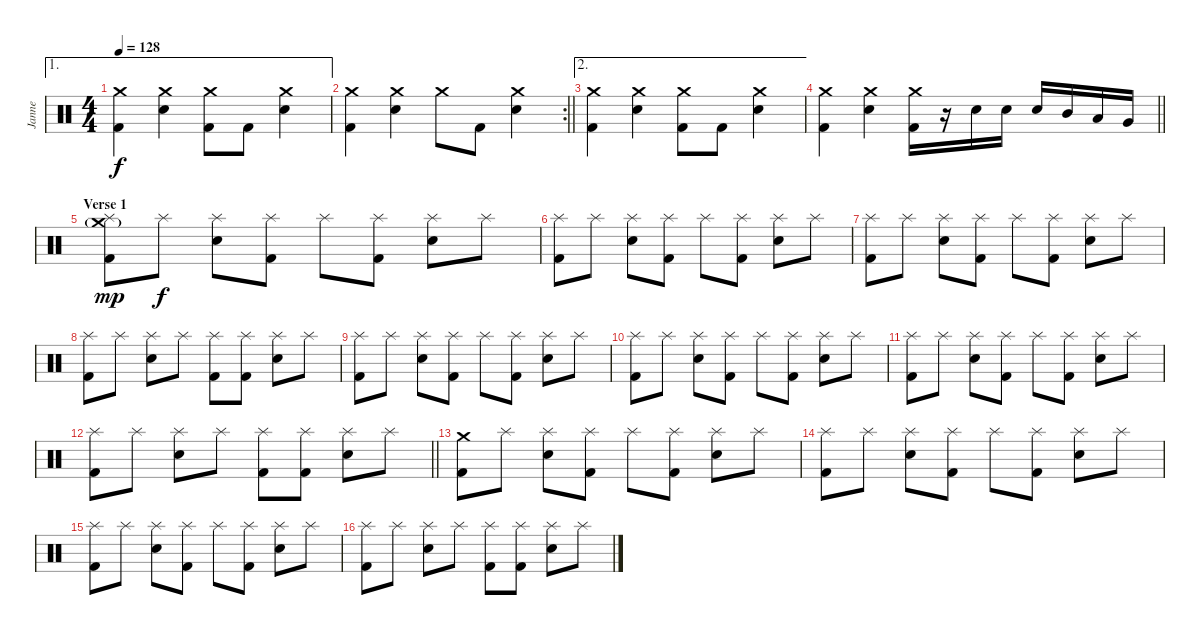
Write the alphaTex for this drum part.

\track ("Janne" "Janne") {instrument percussion}
\staff {score}
\articulation defaults
\ae 1
\ts (4 4)
\tempo 128
\clef neutral
\ks c
("Kick (hit) 2" "Crash medium (hit)").4{dy f} ("Snare (hit) 2" "Crash medium (hit)").4 ("Kick (hit) 2" "Crash medium (hit)").8 "Kick (hit) 2".8 ("Snare (hit) 2" "Crash medium (hit)").4 |
\rc 2
\barLineRight lightlight
("Kick (hit) 2" "Crash medium (hit)").4 ("Snare (hit) 2" "Crash medium (hit)").4 "Crash medium (hit)".8 "Kick (hit) 2".8 ("Snare (hit) 2" "Crash medium (hit)").4 |
\ae 2
("Kick (hit) 2" "Crash medium (hit)").4 ("Snare (hit) 2" "Crash medium (hit)").4 ("Kick (hit) 2" "Crash medium (hit)").8 "Kick (hit) 2".8 ("Snare (hit) 2" "Crash medium (hit)").4 |
\barLineRight lightlight
("Kick (hit) 2" "Crash medium (hit)").4 ("Snare (hit) 2" "Crash medium (hit)").4 ("Kick (hit) 2" "Crash medium (hit)").16 r.16 "Snare (hit) 2".16 "Snare (hit) 2".16 "Snare (hit) 2".16 "Mid Tom (hit)".16 "Low Tom (hit)".16 "Very Low Tom (hit)".16 |
\section ("" "Verse 1")
("Kick (hit) 2" "Splash (hit)" "Crash medium (hit)"{g}).8{dy mp} "Splash (hit)".8{dy f} ("Snare (hit) 2" "Splash (hit)").8 ("Kick (hit) 2" "Splash (hit)").8 "Splash (hit)".8 ("Kick (hit) 2" "Splash (hit)").8 ("Snare (hit) 2" "Splash (hit)").8 "Splash (hit)".8 |
("Kick (hit) 2" "Splash (hit)").8 "Splash (hit)".8 ("Snare (hit) 2" "Splash (hit)").8 ("Kick (hit) 2" "Splash (hit)").8 "Splash (hit)".8 ("Kick (hit) 2" "Splash (hit)").8 ("Snare (hit) 2" "Splash (hit)").8 "Splash (hit)".8 |
("Kick (hit) 2" "Splash (hit)").8 "Splash (hit)".8 ("Snare (hit) 2" "Splash (hit)").8 ("Kick (hit) 2" "Splash (hit)").8 "Splash (hit)".8 ("Kick (hit) 2" "Splash (hit)").8 ("Snare (hit) 2" "Splash (hit)").8 "Splash (hit)".8 |
("Kick (hit) 2" "Splash (hit)").8 "Splash (hit)".8 ("Snare (hit) 2" "Splash (hit)").8 "Splash (hit)".8 ("Kick (hit) 2" "Splash (hit)").8 ("Kick (hit) 2" "Splash (hit)").8 ("Snare (hit) 2" "Splash (hit)").8 "Splash (hit)".8 |
("Kick (hit) 2" "Splash (hit)").8 "Splash (hit)".8 ("Snare (hit) 2" "Splash (hit)").8 ("Kick (hit) 2" "Splash (hit)").8 "Splash (hit)".8 ("Kick (hit) 2" "Splash (hit)").8 ("Snare (hit) 2" "Splash (hit)").8 "Splash (hit)".8 |
("Kick (hit) 2" "Splash (hit)").8 "Splash (hit)".8 ("Snare (hit) 2" "Splash (hit)").8 ("Kick (hit) 2" "Splash (hit)").8 "Splash (hit)".8 ("Kick (hit) 2" "Splash (hit)").8 ("Snare (hit) 2" "Splash (hit)").8 "Splash (hit)".8 |
("Kick (hit) 2" "Splash (hit)").8 "Splash (hit)".8 ("Snare (hit) 2" "Splash (hit)").8 ("Kick (hit) 2" "Splash (hit)").8 "Splash (hit)".8 ("Kick (hit) 2" "Splash (hit)").8 ("Snare (hit) 2" "Splash (hit)").8 "Splash (hit)".8 |
\barLineRight lightlight
("Kick (hit) 2" "Splash (hit)").8 "Splash (hit)".8 ("Snare (hit) 2" "Splash (hit)").8 "Splash (hit)".8 ("Kick (hit) 2" "Splash (hit)").8 ("Kick (hit) 2" "Splash (hit)").8 ("Snare (hit) 2" "Splash (hit)").8 "Splash (hit)".8 |
\section ("" "")
("Kick (hit) 2" "Crash medium (hit)").8 "Splash (hit)".8 ("Snare (hit) 2" "Splash (hit)").8 ("Kick (hit) 2" "Splash (hit)").8 "Splash (hit)".8 ("Kick (hit) 2" "Splash (hit)").8 ("Snare (hit) 2" "Splash (hit)").8 "Splash (hit)".8 |
("Kick (hit) 2" "Splash (hit)").8 "Splash (hit)".8 ("Snare (hit) 2" "Splash (hit)").8 ("Kick (hit) 2" "Splash (hit)").8 "Splash (hit)".8 ("Kick (hit) 2" "Splash (hit)").8 ("Snare (hit) 2" "Splash (hit)").8 "Splash (hit)".8 |
("Kick (hit) 2" "Splash (hit)").8 "Splash (hit)".8 ("Snare (hit) 2" "Splash (hit)").8 ("Kick (hit) 2" "Splash (hit)").8 "Splash (hit)".8 ("Kick (hit) 2" "Splash (hit)").8 ("Snare (hit) 2" "Splash (hit)").8 "Splash (hit)".8 |
("Kick (hit) 2" "Splash (hit)").8 "Splash (hit)".8 ("Snare (hit) 2" "Splash (hit)").8 "Splash (hit)".8 ("Kick (hit) 2" "Splash (hit)").8 ("Kick (hit) 2" "Splash (hit)").8 ("Snare (hit) 2" "Splash (hit)").8 "Splash (hit)".8
